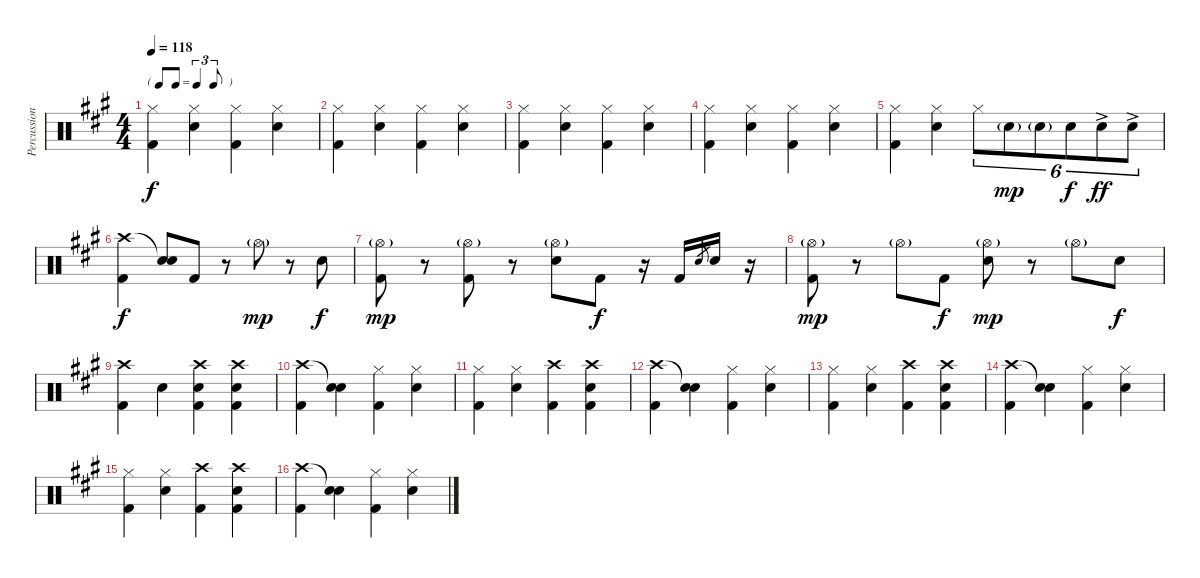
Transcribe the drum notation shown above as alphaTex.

\track ("Percussion" "Percussion") {instrument percussion}
\staff {score}
\articulation defaults
\ts (4 4)
\tf triplet8th
\tempo 118
\clef neutral
\ks a
("Hi-Hat (closed)" "Kick (hit) 2").4{dy f} ("Hi-Hat (closed)" "Snare (hit) 2").4 ("Hi-Hat (closed)" "Kick (hit) 2").4 ("Hi-Hat (closed)" "Snare (hit) 2").4 |
("Hi-Hat (closed)" "Kick (hit) 2").4 ("Hi-Hat (closed)" "Snare (hit) 2").4 ("Hi-Hat (closed)" "Kick (hit) 2").4 ("Hi-Hat (closed)" "Snare (hit) 2").4 |
("Hi-Hat (closed)" "Kick (hit) 2").4 ("Hi-Hat (closed)" "Snare (hit) 2").4 ("Hi-Hat (closed)" "Kick (hit) 2").4 ("Hi-Hat (closed)" "Snare (hit) 2").4 |
("Hi-Hat (closed)" "Kick (hit) 2").4 ("Hi-Hat (closed)" "Snare (hit) 2").4 ("Hi-Hat (closed)" "Kick (hit) 2").4 ("Hi-Hat (closed)" "Snare (hit) 2").4 |
("Hi-Hat (closed)" "Kick (hit) 2").4 ("Hi-Hat (closed)" "Snare (hit) 2").4 "Hi-Hat (closed)".8{tu (6 4)} "Snare (hit) 2"{g}.8{tu (6 4) dy mp} "Snare (hit) 2"{g}.8{tu (6 4)} "Snare (hit) 2".8{tu (6 4) dy f} "Snare (hit) 2"{ac}.8{tu (6 4) dy ff} "Snare (hit) 2"{ac}.8{tu (6 4)} |
("Crash high (hit)" "Kick (hit) 2").4{dy f} ("Snare (hit)"{t} "Snare (hit) 2").8 "Kick (hit) 2".8 r.8 "Hi-Hat (open)"{g}.8{dy mp} r.8 "Snare (hit) 2".8{dy f} |
("Hi-Hat (open)"{g} "Kick (hit) 2").8{dy mp} r.8 ("Hi-Hat (open)"{g} "Kick (hit) 2").8 r.8 ("Hi-Hat (open)"{g} "Snare (hit) 2").8 "Kick (hit) 2".8{dy f} r.16 "Kick (hit) 2".16 "Snare (hit) 2".8{gr} "Snare (hit) 2".16 r.16 |
("Hi-Hat (open)"{g} "Kick (hit) 2").8{dy mp} r.8 "Hi-Hat (open)"{g}.8 "Kick (hit) 2".8{dy f} ("Hi-Hat (open)"{g} "Snare (hit) 2").8{dy mp} r.8 "Hi-Hat (open)"{g}.8 "Snare (hit) 2".8{dy f} |
("Crash high (hit)" "Kick (hit) 2").4 "Snare (hit) 2".4 ("Crash high (hit)" "Snare (hit) 2" "Kick (hit) 2").4 ("Crash high (hit)" "Snare (hit) 2" "Kick (hit) 2").4 |
("Crash high (hit)" "Kick (hit) 2").4 ("Snare (hit)"{t} "Snare (hit) 2").4 ("Hi-Hat (closed)" "Kick (hit) 2").4 ("Hi-Hat (closed)" "Snare (hit) 2").4 |
("Hi-Hat (closed)" "Kick (hit) 2").4 ("Hi-Hat (closed)" "Snare (hit) 2").4 ("Crash high (hit)" "Kick (hit) 2").4 ("Crash high (hit)" "Snare (hit) 2" "Kick (hit) 2").4 |
("Crash high (hit)" "Kick (hit) 2").4 ("Snare (hit)"{t} "Snare (hit) 2").4 ("Hi-Hat (closed)" "Kick (hit) 2").4 ("Hi-Hat (closed)" "Snare (hit) 2").4 |
("Hi-Hat (closed)" "Kick (hit) 2").4 ("Hi-Hat (closed)" "Snare (hit) 2").4 ("Crash high (hit)" "Kick (hit) 2").4 ("Crash high (hit)" "Snare (hit) 2" "Kick (hit) 2").4 |
("Crash high (hit)" "Kick (hit) 2").4 ("Snare (hit)"{t} "Snare (hit) 2").4 ("Hi-Hat (closed)" "Kick (hit) 2").4 ("Hi-Hat (closed)" "Snare (hit) 2").4 |
("Hi-Hat (closed)" "Kick (hit) 2").4 ("Hi-Hat (closed)" "Snare (hit) 2").4 ("Crash high (hit)" "Kick (hit) 2").4 ("Crash high (hit)" "Snare (hit) 2" "Kick (hit) 2").4 |
("Crash high (hit)" "Kick (hit) 2").4 ("Snare (hit)"{t} "Snare (hit) 2").4 ("Hi-Hat (closed)" "Kick (hit) 2").4 ("Hi-Hat (closed)" "Snare (hit) 2").4
